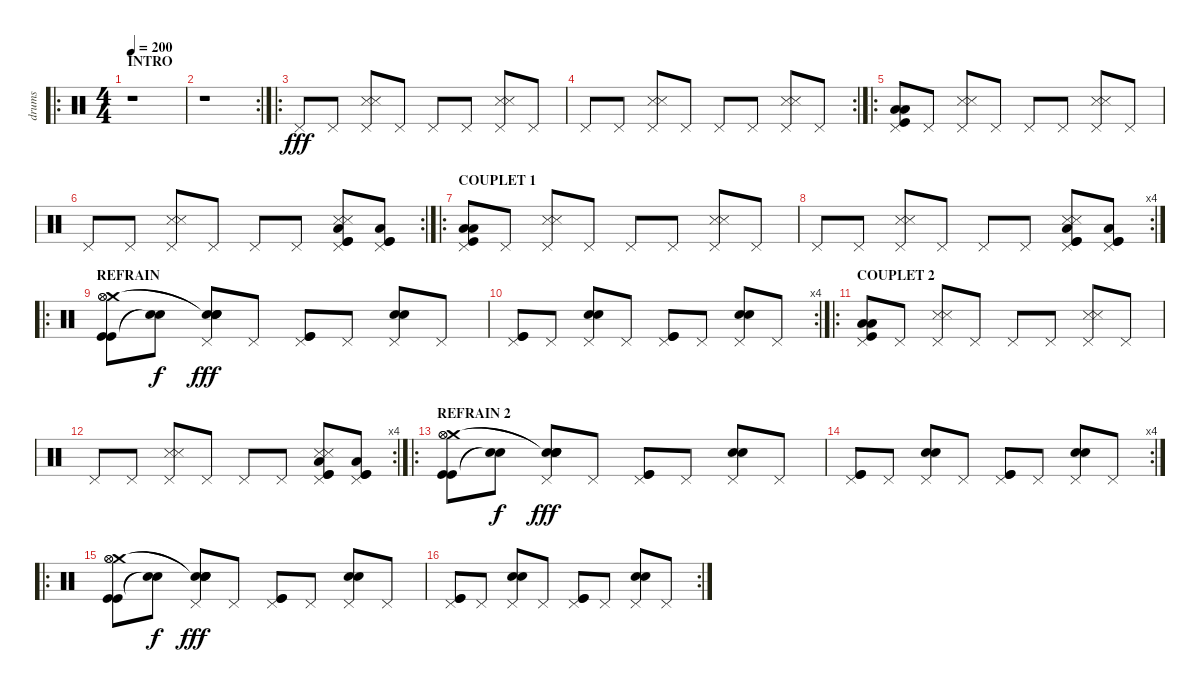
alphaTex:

\track ("drums" "drums") {instrument percussion}
\staff {score}
\articulation defaults
\ro
\ts (4 4)
\section ("" "INTRO")
\tempo 200
\clef neutral
\ks c
r.1{dy fff} |
\rc 2
r.1 |
\ro "Pedal Hi-Hat (hit)".8 "Pedal Hi-Hat (hit)".8
("Pedal Hi-Hat (hit)" "Snare (side stick) 3" "Snare (side stick) 3").8 "Pedal Hi-Hat (hit)".8 "Pedal Hi-Hat (hit)".8 "Pedal Hi-Hat (hit)".8 ("Pedal Hi-Hat (hit)" "Snare (side stick) 3" "Snare (side stick) 3").8 "Pedal Hi-Hat (hit)".8 |
\rc 2 "Pedal Hi-Hat (hit)".8 "Pedal Hi-Hat (hit)".8
("Pedal Hi-Hat (hit)" "Snare (side stick) 3" "Snare (side stick) 3").8 "Pedal Hi-Hat (hit)".8 "Pedal Hi-Hat (hit)".8 "Pedal Hi-Hat (hit)".8 ("Pedal Hi-Hat (hit)" "Snare (side stick) 3" "Snare (side stick) 3").8 "Pedal Hi-Hat (hit)".8 |
\ro
("Pedal Hi-Hat (hit)" "Low Floor Tom (hit)" "Low Floor Tom (hit)" "Kick (hit)").8 "Pedal Hi-Hat (hit)".8 ("Pedal Hi-Hat (hit)" "Snare (side stick) 3" "Snare (side stick) 3").8 "Pedal Hi-Hat (hit)".8 "Pedal Hi-Hat (hit)".8 "Pedal Hi-Hat (hit)".8 ("Pedal Hi-Hat (hit)" "Snare (side stick) 3" "Snare (side stick) 3").8 "Pedal Hi-Hat (hit)".8 |
\rc 2 "Pedal Hi-Hat (hit)".8 "Pedal Hi-Hat (hit)".8
("Pedal Hi-Hat (hit)" "Snare (side stick) 3" "Snare (side stick) 3").8 "Pedal Hi-Hat (hit)".8 "Pedal Hi-Hat (hit)".8 "Pedal Hi-Hat (hit)".8 ("Pedal Hi-Hat (hit)" "Snare (side stick) 3" "Snare (side stick) 3" "Kick (hit)" "Kick (hit)" "Low Floor Tom (hit)").8 ("Pedal Hi-Hat (hit)" "Kick (hit)" "Kick (hit)" "Low Floor Tom (hit)").8 |
\ro
\section ("" "COUPLET 1")
("Pedal Hi-Hat (hit)" "Low Floor Tom (hit)" "Low Floor Tom (hit)" "Kick (hit)").8 "Pedal Hi-Hat (hit)".8 ("Pedal Hi-Hat (hit)" "Snare (side stick) 3" "Snare (side stick) 3").8 "Pedal Hi-Hat (hit)".8 "Pedal Hi-Hat (hit)".8 "Pedal Hi-Hat (hit)".8 ("Pedal Hi-Hat (hit)" "Snare (side stick) 3" "Snare (side stick) 3").8 "Pedal Hi-Hat (hit)".8 |
\rc 4 "Pedal Hi-Hat (hit)".8 "Pedal Hi-Hat (hit)".8
("Pedal Hi-Hat (hit)" "Snare (side stick) 3" "Snare (side stick) 3").8 "Pedal Hi-Hat (hit)".8 "Pedal Hi-Hat (hit)".8 "Pedal Hi-Hat (hit)".8 ("Pedal Hi-Hat (hit)" "Snare (side stick) 3" "Snare (side stick) 3" "Kick (hit)" "Kick (hit)" "Low Floor Tom (hit)").8 ("Pedal Hi-Hat (hit)" "Kick (hit)" "Kick (hit)" "Low Floor Tom (hit)").8 |
\ro
\section ("" "REFRAIN")
("Kick (hit)" "Kick (hit)" "Crash medium (hit)" "Hi-Hat (open)" "Hi-Hat (open)").8 ("Snare (hit)"{t} "Snare (hit)"{t}).8{dy f} ("Snare (hit) 2" "Electric Snare (hit)" "Pedal Hi-Hat (hit)" "Snare (hit)"{t} "Snare (hit)"{t}).8{dy fff} "Pedal Hi-Hat (hit)".8 ("Kick (hit)" "Kick (hit)" "Pedal Hi-Hat (hit)").8 "Pedal Hi-Hat (hit)".8 ("Snare (hit) 2" "Electric Snare (hit)" "Pedal Hi-Hat (hit)").8 "Pedal Hi-Hat (hit)".8 |
\rc 4
("Kick (hit)" "Kick (hit)" "Pedal Hi-Hat (hit)").8 "Pedal Hi-Hat (hit)".8 ("Snare (hit) 2" "Electric Snare (hit)" "Pedal Hi-Hat (hit)").8 "Pedal Hi-Hat (hit)".8 ("Kick (hit)" "Kick (hit)" "Pedal Hi-Hat (hit)").8 "Pedal Hi-Hat (hit)".8 ("Snare (hit) 2" "Electric Snare (hit)" "Pedal Hi-Hat (hit)").8 "Pedal Hi-Hat (hit)".8 |
\ro
\section ("" "COUPLET 2")
("Pedal Hi-Hat (hit)" "Low Floor Tom (hit)" "Low Floor Tom (hit)" "Kick (hit)").8 "Pedal Hi-Hat (hit)".8 ("Pedal Hi-Hat (hit)" "Snare (side stick) 3" "Snare (side stick) 3").8 "Pedal Hi-Hat (hit)".8 "Pedal Hi-Hat (hit)".8 "Pedal Hi-Hat (hit)".8 ("Pedal Hi-Hat (hit)" "Snare (side stick) 3" "Snare (side stick) 3").8 "Pedal Hi-Hat (hit)".8 |
\rc 4 "Pedal Hi-Hat (hit)".8 "Pedal Hi-Hat (hit)".8
("Pedal Hi-Hat (hit)" "Snare (side stick) 3" "Snare (side stick) 3").8 "Pedal Hi-Hat (hit)".8 "Pedal Hi-Hat (hit)".8 "Pedal Hi-Hat (hit)".8 ("Pedal Hi-Hat (hit)" "Snare (side stick) 3" "Snare (side stick) 3" "Kick (hit)" "Kick (hit)" "Low Floor Tom (hit)").8 ("Pedal Hi-Hat (hit)" "Kick (hit)" "Kick (hit)" "Low Floor Tom (hit)").8 |
\ro
\section ("" "REFRAIN 2")
("Kick (hit)" "Kick (hit)" "Crash medium (hit)" "Hi-Hat (open)" "Hi-Hat (open)").8 ("Snare (hit)"{t} "Snare (hit)"{t}).8{dy f} ("Snare (hit) 2" "Electric Snare (hit)" "Pedal Hi-Hat (hit)" "Snare (hit)"{t} "Snare (hit)"{t}).8{dy fff} "Pedal Hi-Hat (hit)".8 ("Kick (hit)" "Kick (hit)" "Pedal Hi-Hat (hit)").8 "Pedal Hi-Hat (hit)".8 ("Snare (hit) 2" "Electric Snare (hit)" "Pedal Hi-Hat (hit)").8 "Pedal Hi-Hat (hit)".8 |
\rc 4
("Kick (hit)" "Kick (hit)" "Pedal Hi-Hat (hit)").8 "Pedal Hi-Hat (hit)".8 ("Snare (hit) 2" "Electric Snare (hit)" "Pedal Hi-Hat (hit)").8 "Pedal Hi-Hat (hit)".8 ("Kick (hit)" "Kick (hit)" "Pedal Hi-Hat (hit)").8 "Pedal Hi-Hat (hit)".8 ("Snare (hit) 2" "Electric Snare (hit)" "Pedal Hi-Hat (hit)").8 "Pedal Hi-Hat (hit)".8 |
\ro
("Kick (hit)" "Kick (hit)" "Crash medium (hit)" "Hi-Hat (open)" "Hi-Hat (open)").8 ("Snare (hit)"{t} "Snare (hit)"{t}).8{dy f} ("Snare (hit) 2" "Electric Snare (hit)" "Pedal Hi-Hat (hit)" "Snare (hit)"{t} "Snare (hit)"{t}).8{dy fff} "Pedal Hi-Hat (hit)".8 ("Kick (hit)" "Kick (hit)" "Pedal Hi-Hat (hit)").8 "Pedal Hi-Hat (hit)".8 ("Snare (hit) 2" "Electric Snare (hit)" "Pedal Hi-Hat (hit)").8 "Pedal Hi-Hat (hit)".8 |
\rc 2
("Kick (hit)" "Kick (hit)" "Pedal Hi-Hat (hit)").8 "Pedal Hi-Hat (hit)".8 ("Snare (hit) 2" "Electric Snare (hit)" "Pedal Hi-Hat (hit)").8 "Pedal Hi-Hat (hit)".8 ("Kick (hit)" "Kick (hit)" "Pedal Hi-Hat (hit)").8 "Pedal Hi-Hat (hit)".8 ("Snare (hit) 2" "Electric Snare (hit)" "Pedal Hi-Hat (hit)").8 "Pedal Hi-Hat (hit)".8
